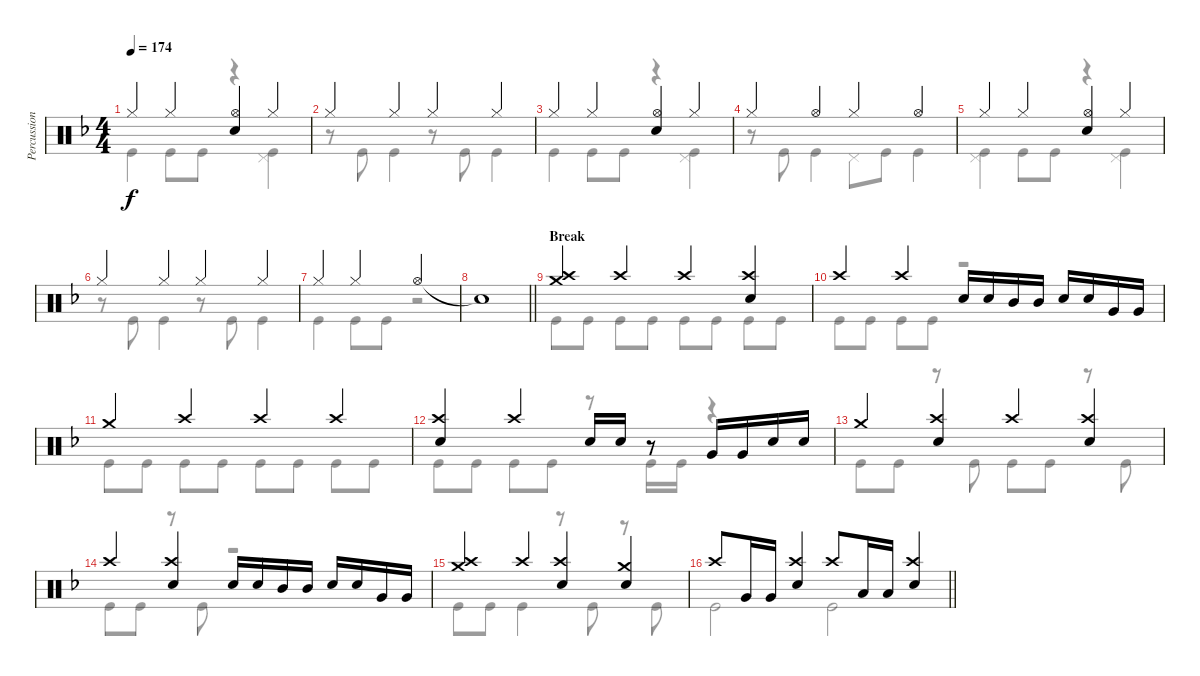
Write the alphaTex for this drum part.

\track ("Percussion" "Percussion") {instrument percussion}
\staff {score}
\articulation defaults
\voice
\ts (4 4)
\tempo 174
\clef neutral
\ks dminor "Hi-Hat (closed)".4{dy f} "Hi-Hat (closed)".4
("Hi-Hat (open)" "Electric Snare (hit)").4 "Hi-Hat (closed)".4 |
"Hi-Hat (closed)".4 "Hi-Hat (closed)".4 "Hi-Hat (closed)".4 "Hi-Hat (closed)".4 |
"Hi-Hat (closed)".4 "Hi-Hat (closed)".4 ("Hi-Hat (open)" "Electric Snare (hit)").4 "Hi-Hat (closed)".4 |
"Hi-Hat (closed)".4 "Hi-Hat (open)".4 "Hi-Hat (closed)".4 "Hi-Hat (open)".4 |
"Hi-Hat (closed)".4 "Hi-Hat (closed)".4 ("Hi-Hat (open)" "Electric Snare (hit)").4 "Hi-Hat (closed)".4 |
"Hi-Hat (closed)".4 "Hi-Hat (closed)".4 "Hi-Hat (closed)".4 "Hi-Hat (closed)".4 |
"Hi-Hat (closed)".4 "Hi-Hat (closed)".4 "Hi-Hat (open)".2 |
\barLineRight lightlight "Snare (hit)"{t}.1
|
\section ("" "Break")
("Crash medium (hit)" "Crash high (hit)").4 "Crash high (hit)".4 "Crash high (hit)".4 ("Crash high (hit)" "Electric Snare (hit)").4 |
"Crash high (hit)".4 "Crash high (hit)".4 "Electric Snare (hit)".16 "Electric Snare (hit)".16 "Mid Tom (hit)".16 "Mid Tom (hit)".16 "Electric Snare (hit)".16 "Electric Snare (hit)".16 "Very Low Tom (hit)".16 "Very Low Tom (hit)".16 |
"Crash medium (hit)".4 "Crash high (hit)".4 "Crash high (hit)".4 "Crash high (hit)".4 |
("Crash high (hit)" "Electric Snare (hit)").4 "Crash high (hit)".4 "Electric Snare (hit)".16 "Electric Snare (hit)".16 r.8 "Very Low Tom (hit)".16 "Very Low Tom (hit)".16 "Electric Snare (hit)".16 "Electric Snare (hit)".16 |
"Crash medium (hit)".4 ("Crash high (hit)" "Electric Snare (hit)").4 "Crash high (hit)".4 ("Crash high (hit)" "Electric Snare (hit)").4 |
"Crash high (hit)".4 ("Crash high (hit)" "Electric Snare (hit)").4 "Electric Snare (hit)".16 "Electric Snare (hit)".16 "Mid Tom (hit)".16 "Mid Tom (hit)".16 "Electric Snare (hit)".16 "Electric Snare (hit)".16 "Very Low Tom (hit)".16 "Very Low Tom (hit)".16 |
("Crash medium (hit)" "Crash high (hit)").4 "Crash high (hit)".4 ("Crash high (hit)" "Electric Snare (hit)").4 ("Crash medium (hit)" "Electric Snare (hit)").4 |
\barLineRight lightlight "Crash high (hit)".8 "Very Low Tom (hit)".16 "Very Low Tom (hit)".16
("Crash high (hit)" "Electric Snare (hit)").4 "Crash high (hit)".8 "Low Tom (hit)".16 "Low Tom (hit)".16 ("Crash high (hit)" "Electric Snare (hit)").4
\voice
\clef neutral
\ottava regular
\simile none
\ks dminor "Kick (hit)".4{dy f} "Kick (hit)".8 "Kick (hit)".8
r.4 ("Pedal Hi-Hat (hit)" "Kick (hit)").4 |
r.8 "Kick (hit)".8 "Kick (hit)".4 r.8 "Kick (hit)".8 "Kick (hit)".4 |
"Kick (hit)".4 "Kick (hit)".8 "Kick (hit)".8 r.4 ("Pedal Hi-Hat (hit)" "Kick (hit)").4 |
r.8 "Kick (hit)".8 "Kick (hit)".4 "Pedal Hi-Hat (hit)".8 "Kick (hit)".8 "Kick (hit)".4 |
("Pedal Hi-Hat (hit)" "Kick (hit)").4 "Kick (hit)".8 "Kick (hit)".8 r.4 ("Pedal Hi-Hat (hit)" "Kick (hit)").4 |
r.8 "Kick (hit)".8 "Kick (hit)".4 r.8 "Kick (hit)".8 "Kick (hit)".4 |
"Kick (hit)".4 "Kick (hit)".8 "Kick (hit)".8 r.2 |
\barLineRight lightlight
|
"Kick (hit)".8 "Kick (hit)".8 "Kick (hit)".8 "Kick (hit)".8 "Kick (hit)".8 "Kick (hit)".8 "Kick (hit)".8 "Kick (hit)".8 |
"Kick (hit)".8 "Kick (hit)".8 "Kick (hit)".8 "Kick (hit)".8 r.2 |
"Kick (hit)".8 "Kick (hit)".8 "Kick (hit)".8 "Kick (hit)".8 "Kick (hit)".8 "Kick (hit)".8 "Kick (hit)".8 "Kick (hit)".8 |
"Kick (hit)".8 "Kick (hit)".8 "Kick (hit)".8 "Kick (hit)".8 r.8 "Kick (hit)".16 "Kick (hit)".16 r.4 |
"Kick (hit)".8 "Kick (hit)".8 r.8 "Kick (hit)".8 "Kick (hit)".8 "Kick (hit)".8 r.8 "Kick (hit)".8 |
"Kick (hit)".8 "Kick (hit)".8 r.8 "Kick (hit)".8 r.2 |
"Kick (hit)".8 "Kick (hit)".8 "Kick (hit)".4 r.8 "Kick (hit)".8 r.8 "Kick (hit)".8 |
\barLineRight lightlight "Kick (hit)".2 "Kick (hit)".2
